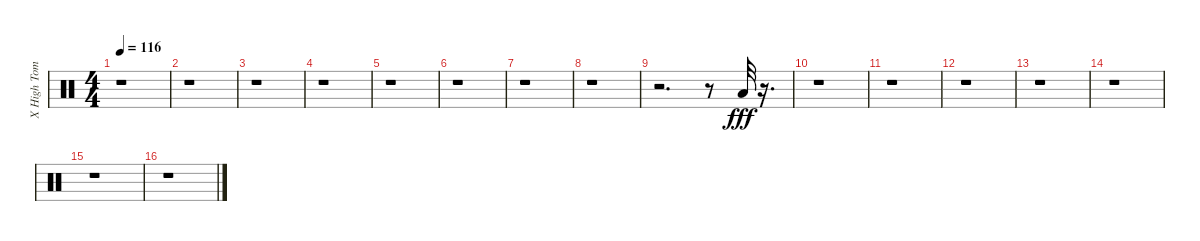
\track ("X High Tom          " "X High Tom") {instrument percussion}
\staff {score}
\articulation defaults
\ts (4 4)
\tempo 116
\clef neutral
\ks c
r.1{dy fff} |
r.1 |
r.1 |
r.1 |
r.1 |
r.1 |
r.1 |
r.1 |
r.2{d} r.8 "Low Tom (hit)".32 r.16{d} |
r.1 |
r.1 |
r.1 |
r.1 |
r.1 |
r.1 |
r.1
